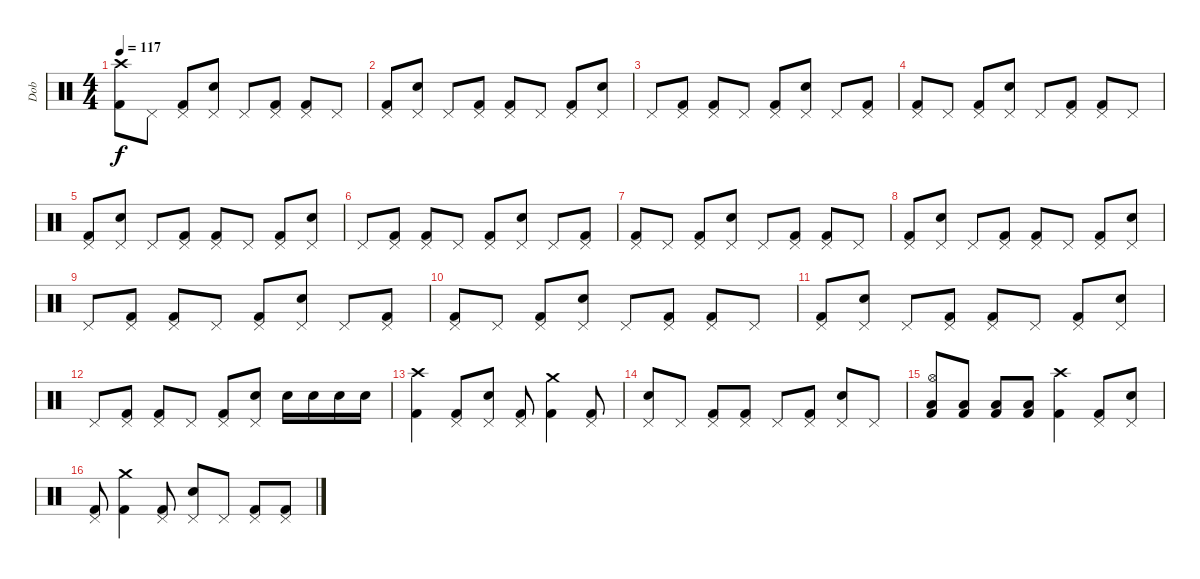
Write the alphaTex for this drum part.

\track ("Dob" "Dob") {instrument percussion}
\staff
\articulation defaults
\ts (4 4)
\tempo 117
\clef neutral
\ks c
("Crash high (hit)" "Kick (hit) 2").8{dy f} "Pedal Hi-Hat (hit)".8 ("Pedal Hi-Hat (hit)" "Kick (hit) 2").8 ("Pedal Hi-Hat (hit)" "Snare (hit) 2").8 "Pedal Hi-Hat (hit)".8 ("Pedal Hi-Hat (hit)" "Kick (hit) 2").8 ("Pedal Hi-Hat (hit)" "Kick (hit) 2").8 "Pedal Hi-Hat (hit)".8 |
("Pedal Hi-Hat (hit)" "Kick (hit) 2").8 ("Pedal Hi-Hat (hit)" "Snare (hit) 2").8 "Pedal Hi-Hat (hit)".8 ("Pedal Hi-Hat (hit)" "Kick (hit) 2").8 ("Pedal Hi-Hat (hit)" "Kick (hit) 2").8 "Pedal Hi-Hat (hit)".8 ("Pedal Hi-Hat (hit)" "Kick (hit) 2").8 ("Pedal Hi-Hat (hit)" "Snare (hit) 2").8 |
"Pedal Hi-Hat (hit)".8 ("Pedal Hi-Hat (hit)" "Kick (hit) 2").8 ("Pedal Hi-Hat (hit)" "Kick (hit) 2").8 "Pedal Hi-Hat (hit)".8 ("Pedal Hi-Hat (hit)" "Kick (hit) 2").8 ("Pedal Hi-Hat (hit)" "Snare (hit) 2").8 "Pedal Hi-Hat (hit)".8 ("Pedal Hi-Hat (hit)" "Kick (hit) 2").8 |
("Pedal Hi-Hat (hit)" "Kick (hit) 2").8 "Pedal Hi-Hat (hit)".8 ("Pedal Hi-Hat (hit)" "Kick (hit) 2").8 ("Pedal Hi-Hat (hit)" "Snare (hit) 2").8 "Pedal Hi-Hat (hit)".8 ("Pedal Hi-Hat (hit)" "Kick (hit) 2").8 ("Pedal Hi-Hat (hit)" "Kick (hit) 2").8 "Pedal Hi-Hat (hit)".8 |
("Pedal Hi-Hat (hit)" "Kick (hit) 2").8 ("Pedal Hi-Hat (hit)" "Snare (hit) 2").8 "Pedal Hi-Hat (hit)".8 ("Pedal Hi-Hat (hit)" "Kick (hit) 2").8 ("Pedal Hi-Hat (hit)" "Kick (hit) 2").8 "Pedal Hi-Hat (hit)".8 ("Pedal Hi-Hat (hit)" "Kick (hit) 2").8 ("Pedal Hi-Hat (hit)" "Snare (hit) 2").8 |
"Pedal Hi-Hat (hit)".8 ("Pedal Hi-Hat (hit)" "Kick (hit) 2").8 ("Pedal Hi-Hat (hit)" "Kick (hit) 2").8 "Pedal Hi-Hat (hit)".8 ("Pedal Hi-Hat (hit)" "Kick (hit) 2").8 ("Pedal Hi-Hat (hit)" "Snare (hit) 2").8 "Pedal Hi-Hat (hit)".8 ("Pedal Hi-Hat (hit)" "Kick (hit) 2").8 |
("Pedal Hi-Hat (hit)" "Kick (hit) 2").8 "Pedal Hi-Hat (hit)".8 ("Pedal Hi-Hat (hit)" "Kick (hit) 2").8 ("Pedal Hi-Hat (hit)" "Snare (hit) 2").8 "Pedal Hi-Hat (hit)".8 ("Pedal Hi-Hat (hit)" "Kick (hit) 2").8 ("Pedal Hi-Hat (hit)" "Kick (hit) 2").8 "Pedal Hi-Hat (hit)".8 |
("Pedal Hi-Hat (hit)" "Kick (hit) 2").8 ("Pedal Hi-Hat (hit)" "Snare (hit) 2").8 "Pedal Hi-Hat (hit)".8 ("Pedal Hi-Hat (hit)" "Kick (hit) 2").8 ("Pedal Hi-Hat (hit)" "Kick (hit) 2").8 "Pedal Hi-Hat (hit)".8 ("Pedal Hi-Hat (hit)" "Kick (hit) 2").8 ("Pedal Hi-Hat (hit)" "Snare (hit) 2").8 |
"Pedal Hi-Hat (hit)".8 ("Pedal Hi-Hat (hit)" "Kick (hit) 2").8 ("Pedal Hi-Hat (hit)" "Kick (hit) 2").8 "Pedal Hi-Hat (hit)".8 ("Pedal Hi-Hat (hit)" "Kick (hit) 2").8 ("Pedal Hi-Hat (hit)" "Snare (hit) 2").8 "Pedal Hi-Hat (hit)".8 ("Pedal Hi-Hat (hit)" "Kick (hit) 2").8 |
("Pedal Hi-Hat (hit)" "Kick (hit) 2").8 "Pedal Hi-Hat (hit)".8 ("Pedal Hi-Hat (hit)" "Kick (hit) 2").8 ("Pedal Hi-Hat (hit)" "Snare (hit) 2").8 "Pedal Hi-Hat (hit)".8 ("Pedal Hi-Hat (hit)" "Kick (hit) 2").8 ("Pedal Hi-Hat (hit)" "Kick (hit) 2").8 "Pedal Hi-Hat (hit)".8 |
("Pedal Hi-Hat (hit)" "Kick (hit) 2").8 ("Pedal Hi-Hat (hit)" "Snare (hit) 2").8 "Pedal Hi-Hat (hit)".8 ("Pedal Hi-Hat (hit)" "Kick (hit) 2").8 ("Pedal Hi-Hat (hit)" "Kick (hit) 2").8 "Pedal Hi-Hat (hit)".8 ("Pedal Hi-Hat (hit)" "Kick (hit) 2").8 ("Pedal Hi-Hat (hit)" "Snare (hit) 2").8 |
"Pedal Hi-Hat (hit)".8 ("Pedal Hi-Hat (hit)" "Kick (hit) 2").8 ("Pedal Hi-Hat (hit)" "Kick (hit) 2").8 "Pedal Hi-Hat (hit)".8 ("Pedal Hi-Hat (hit)" "Kick (hit) 2").8 ("Pedal Hi-Hat (hit)" "Snare (hit) 2").8 "Snare (hit) 2".16 "Snare (hit) 2".16 "Snare (hit) 2".16 "Snare (hit) 2".16 |
("Crash high (hit)" "Kick (hit) 2").4 ("Pedal Hi-Hat (hit)" "Kick (hit) 2").8 ("Pedal Hi-Hat (hit)" "Snare (hit) 2").8 ("Pedal Hi-Hat (hit)" "Kick (hit) 2").8 ("Crash medium (hit)" "Kick (hit) 2").4 ("Pedal Hi-Hat (hit)" "Kick (hit) 2").8 |
("Pedal Hi-Hat (hit)" "Snare (hit) 2").8 "Pedal Hi-Hat (hit)".8 ("Pedal Hi-Hat (hit)" "Kick (hit) 2").8 ("Pedal Hi-Hat (hit)" "Kick (hit) 2").8 "Pedal Hi-Hat (hit)".8 ("Pedal Hi-Hat (hit)" "Kick (hit) 2").8 ("Pedal Hi-Hat (hit)" "Snare (hit) 2").8 "Pedal Hi-Hat (hit)".8 |
("Hi-Hat (open)" "Low Floor Tom (hit)" "Kick (hit) 2").8 ("Low Floor Tom (hit)" "Kick (hit) 2").8 ("Low Floor Tom (hit)" "Kick (hit) 2").8 ("Low Floor Tom (hit)" "Kick (hit) 2").8 ("Crash high (hit)" "Kick (hit) 2").4 ("Pedal Hi-Hat (hit)" "Kick (hit) 2").8 ("Pedal Hi-Hat (hit)" "Snare (hit) 2").8 |
("Pedal Hi-Hat (hit)" "Kick (hit) 2").8 ("Crash medium (hit)" "Kick (hit) 2").4 ("Pedal Hi-Hat (hit)" "Kick (hit) 2").8 ("Pedal Hi-Hat (hit)" "Snare (hit) 2").8 "Pedal Hi-Hat (hit)".8 ("Pedal Hi-Hat (hit)" "Kick (hit) 2").8 ("Pedal Hi-Hat (hit)" "Kick (hit) 2").8
